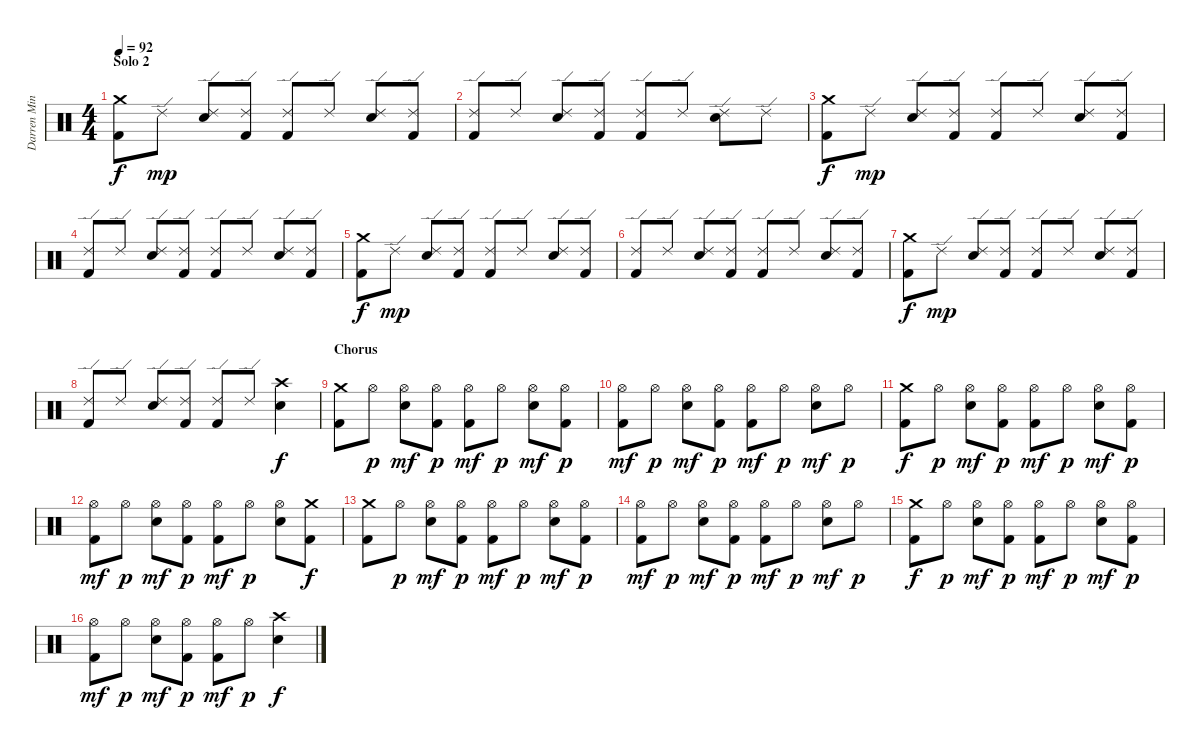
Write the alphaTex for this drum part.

\track ("Darren Minter" "Darren Min") {instrument percussion}
\staff {score}
\articulation defaults
\ts (4 4)
\section ("" "Solo 2")
\tempo 92
\clef neutral
\ks c
("Kick (hit) 2" "Crash medium (hit)").8{dy f} "Ride (edge) 2".8{dy mp} ("Ride (edge) 2" "Snare (hit) 2").8 ("Kick (hit) 2" "Ride (edge) 2").8 ("Kick (hit) 2" "Ride (edge) 2").8 "Ride (edge) 2".8 ("Ride (edge) 2" "Snare (hit) 2").8 ("Kick (hit) 2" "Ride (edge) 2").8 |
("Kick (hit) 2" "Ride (edge) 2").8 "Ride (edge) 2".8 ("Ride (edge) 2" "Snare (hit) 2").8 ("Kick (hit) 2" "Ride (edge) 2").8 ("Kick (hit) 2" "Ride (edge) 2").8 "Ride (edge) 2".8 ("Ride (edge) 2" "Snare (hit) 2").8 "Ride (edge) 2".8 |
("Kick (hit) 2" "Crash medium (hit)").8{dy f} "Ride (edge) 2".8{dy mp} ("Ride (edge) 2" "Snare (hit) 2").8 ("Kick (hit) 2" "Ride (edge) 2").8 ("Kick (hit) 2" "Ride (edge) 2").8 "Ride (edge) 2".8 ("Ride (edge) 2" "Snare (hit) 2").8 ("Kick (hit) 2" "Ride (edge) 2").8 |
("Kick (hit) 2" "Ride (edge) 2").8 "Ride (edge) 2".8 ("Ride (edge) 2" "Snare (hit) 2").8 ("Kick (hit) 2" "Ride (edge) 2").8 ("Kick (hit) 2" "Ride (edge) 2").8 "Ride (edge) 2".8 ("Ride (edge) 2" "Snare (hit) 2").8 ("Kick (hit) 2" "Ride (edge) 2").8 |
("Kick (hit) 2" "Crash medium (hit)").8{dy f} "Ride (edge) 2".8{dy mp} ("Ride (edge) 2" "Snare (hit) 2").8 ("Kick (hit) 2" "Ride (edge) 2").8 ("Kick (hit) 2" "Ride (edge) 2").8 "Ride (edge) 2".8 ("Ride (edge) 2" "Snare (hit) 2").8 ("Kick (hit) 2" "Ride (edge) 2").8 |
("Kick (hit) 2" "Ride (edge) 2").8 "Ride (edge) 2".8 ("Ride (edge) 2" "Snare (hit) 2").8 ("Kick (hit) 2" "Ride (edge) 2").8 ("Kick (hit) 2" "Ride (edge) 2").8 "Ride (edge) 2".8 ("Ride (edge) 2" "Snare (hit) 2").8 ("Kick (hit) 2" "Ride (edge) 2").8 |
("Kick (hit) 2" "Crash medium (hit)").8{dy f} "Ride (edge) 2".8{dy mp} ("Ride (edge) 2" "Snare (hit) 2").8 ("Kick (hit) 2" "Ride (edge) 2").8 ("Kick (hit) 2" "Ride (edge) 2").8 "Ride (edge) 2".8 ("Ride (edge) 2" "Snare (hit) 2").8 ("Kick (hit) 2" "Ride (edge) 2").8 |
("Kick (hit) 2" "Ride (edge) 2").8 "Ride (edge) 2".8 ("Ride (edge) 2" "Snare (hit) 2").8 ("Kick (hit) 2" "Ride (edge) 2").8 ("Kick (hit) 2" "Ride (edge) 2").8 "Ride (edge) 2".8 ("Crash high (hit)" "Snare (hit) 2").4{dy f} |
\section ("" "Chorus")
("Kick (hit) 2" "Crash medium (hit)").8 "Hi-Hat (open)".8{dy p} ("Hi-Hat (open)" "Snare (hit) 2").8{dy mf} ("Kick (hit) 2" "Hi-Hat (open)").8{dy p} ("Kick (hit) 2" "Hi-Hat (open)").8{dy mf} "Hi-Hat (open)".8{dy p} ("Hi-Hat (open)" "Snare (hit) 2").8{dy mf} ("Kick (hit) 2" "Hi-Hat (open)").8{dy p} |
("Kick (hit) 2" "Hi-Hat (open)").8{dy mf} "Hi-Hat (open)".8{dy p} ("Hi-Hat (open)" "Snare (hit) 2").8{dy mf} ("Kick (hit) 2" "Hi-Hat (open)").8{dy p} ("Kick (hit) 2" "Hi-Hat (open)").8{dy mf} "Hi-Hat (open)".8{dy p} ("Hi-Hat (open)" "Snare (hit) 2").8{dy mf} "Hi-Hat (open)".8{dy p} |
("Kick (hit) 2" "Crash medium (hit)").8{dy f} "Hi-Hat (open)".8{dy p} ("Hi-Hat (open)" "Snare (hit) 2").8{dy mf} ("Kick (hit) 2" "Hi-Hat (open)").8{dy p} ("Kick (hit) 2" "Hi-Hat (open)").8{dy mf} "Hi-Hat (open)".8{dy p} ("Hi-Hat (open)" "Snare (hit) 2").8{dy mf} ("Kick (hit) 2" "Hi-Hat (open)").8{dy p} |
("Kick (hit) 2" "Hi-Hat (open)").8{dy mf} "Hi-Hat (open)".8{dy p} ("Hi-Hat (open)" "Snare (hit) 2").8{dy mf} ("Kick (hit) 2" "Hi-Hat (open)").8{dy p} ("Kick (hit) 2" "Hi-Hat (open)").8{dy mf} "Hi-Hat (open)".8{dy p} ("Hi-Hat (open)" "Snare (hit) 2").8 ("Kick (hit) 2" "Crash medium (hit)").8{dy f} |
("Kick (hit) 2" "Crash medium (hit)").8 "Hi-Hat (open)".8{dy p} ("Hi-Hat (open)" "Snare (hit) 2").8{dy mf} ("Kick (hit) 2" "Hi-Hat (open)").8{dy p} ("Kick (hit) 2" "Hi-Hat (open)").8{dy mf} "Hi-Hat (open)".8{dy p} ("Hi-Hat (open)" "Snare (hit) 2").8{dy mf} ("Kick (hit) 2" "Hi-Hat (open)").8{dy p} |
("Kick (hit) 2" "Hi-Hat (open)").8{dy mf} "Hi-Hat (open)".8{dy p} ("Hi-Hat (open)" "Snare (hit) 2").8{dy mf} ("Kick (hit) 2" "Hi-Hat (open)").8{dy p} ("Kick (hit) 2" "Hi-Hat (open)").8{dy mf} "Hi-Hat (open)".8{dy p} ("Hi-Hat (open)" "Snare (hit) 2").8{dy mf} "Hi-Hat (open)".8{dy p} |
("Kick (hit) 2" "Crash medium (hit)").8{dy f} "Hi-Hat (open)".8{dy p} ("Hi-Hat (open)" "Snare (hit) 2").8{dy mf} ("Kick (hit) 2" "Hi-Hat (open)").8{dy p} ("Kick (hit) 2" "Hi-Hat (open)").8{dy mf} "Hi-Hat (open)".8{dy p} ("Hi-Hat (open)" "Snare (hit) 2").8{dy mf} ("Kick (hit) 2" "Hi-Hat (open)").8{dy p} |
("Kick (hit) 2" "Hi-Hat (open)").8{dy mf} "Hi-Hat (open)".8{dy p} ("Hi-Hat (open)" "Snare (hit) 2").8{dy mf} ("Kick (hit) 2" "Hi-Hat (open)").8{dy p} ("Kick (hit) 2" "Hi-Hat (open)").8{dy mf} "Hi-Hat (open)".8{dy p} ("Crash high (hit)" "Snare (hit) 2").4{dy f}
